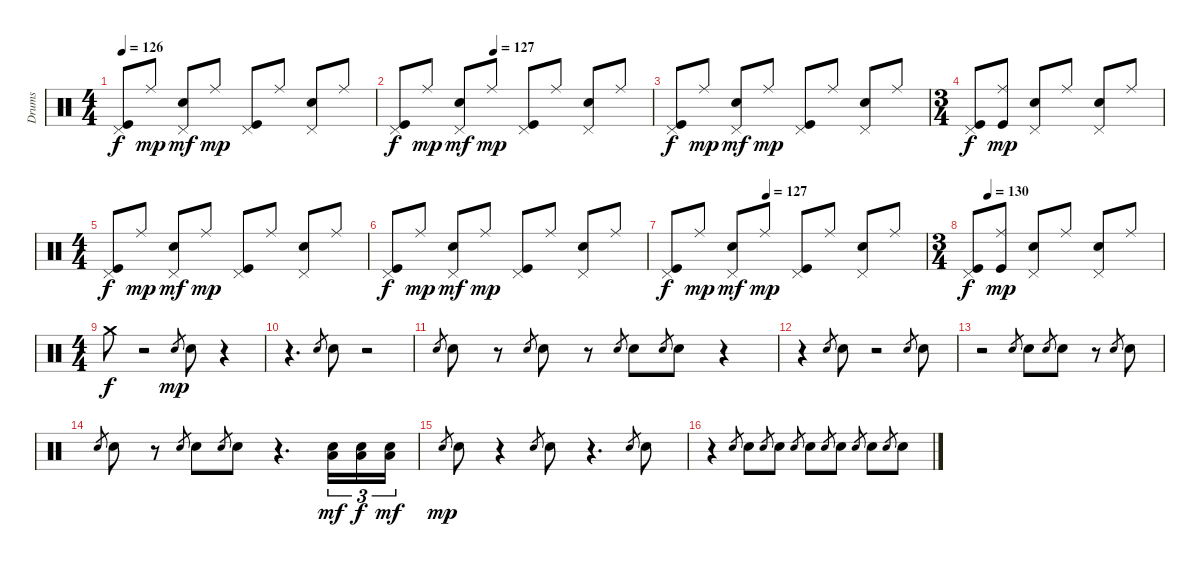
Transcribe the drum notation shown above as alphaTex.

\track ("Drums" "Drums") {instrument percussion}
\staff {score}
\articulation defaults
\ts (4 4)
\tempo 126
\clef neutral
\ks c
("Kick (hit)" "Pedal Hi-Hat (hit)").8{dy f} "Ride (middle)".8{dy mp} ("Electric Snare (hit)" "Pedal Hi-Hat (hit)").8{dy mf} "Ride (middle)".8{dy mp} ("Kick (hit)" "Pedal Hi-Hat (hit)").8 "Ride (middle)".8 ("Electric Snare (hit)" "Pedal Hi-Hat (hit)").8 "Ride (middle)".8 |
\tempo (127 0.375)
("Kick (hit)" "Pedal Hi-Hat (hit)").8{dy f} "Ride (middle)".8{dy mp} ("Electric Snare (hit)" "Pedal Hi-Hat (hit)").8{dy mf} "Ride (middle)".8{dy mp} ("Kick (hit)" "Pedal Hi-Hat (hit)").8 "Ride (middle)".8 ("Electric Snare (hit)" "Pedal Hi-Hat (hit)").8 "Ride (middle)".8 |
("Kick (hit)" "Pedal Hi-Hat (hit)").8{dy f} "Ride (middle)".8{dy mp} ("Electric Snare (hit)" "Pedal Hi-Hat (hit)").8{dy mf} "Ride (middle)".8{dy mp} ("Kick (hit)" "Pedal Hi-Hat (hit)").8 "Ride (middle)".8 ("Electric Snare (hit)" "Pedal Hi-Hat (hit)").8 "Ride (middle)".8 |
\ts (3 4)
("Kick (hit)" "Pedal Hi-Hat (hit)").8{dy f} ("Kick (hit)" "Ride (middle)").8{dy mp} ("Electric Snare (hit)" "Pedal Hi-Hat (hit)").8 "Ride (middle)".8 ("Electric Snare (hit)" "Pedal Hi-Hat (hit)").8 "Ride (middle)".8 |
\ts (4 4)
("Kick (hit)" "Pedal Hi-Hat (hit)").8{dy f} "Ride (middle)".8{dy mp} ("Electric Snare (hit)" "Pedal Hi-Hat (hit)").8{dy mf} "Ride (middle)".8{dy mp} ("Kick (hit)" "Pedal Hi-Hat (hit)").8 "Ride (middle)".8 ("Electric Snare (hit)" "Pedal Hi-Hat (hit)").8 "Ride (middle)".8 |
("Kick (hit)" "Pedal Hi-Hat (hit)").8{dy f} "Ride (middle)".8{dy mp} ("Electric Snare (hit)" "Pedal Hi-Hat (hit)").8{dy mf} "Ride (middle)".8{dy mp} ("Kick (hit)" "Pedal Hi-Hat (hit)").8 "Ride (middle)".8 ("Electric Snare (hit)" "Pedal Hi-Hat (hit)").8 "Ride (middle)".8 |
\tempo (127 0.375)
("Kick (hit)" "Pedal Hi-Hat (hit)").8{dy f} "Ride (middle)".8{dy mp} ("Electric Snare (hit)" "Pedal Hi-Hat (hit)").8{dy mf} "Ride (middle)".8{dy mp} ("Kick (hit)" "Pedal Hi-Hat (hit)").8 "Ride (middle)".8 ("Electric Snare (hit)" "Pedal Hi-Hat (hit)").8 "Ride (middle)".8 |
\ts (3 4)
\tempo (130 0.08333333333333333)
("Kick (hit)" "Pedal Hi-Hat (hit)").8{dy f} ("Kick (hit)" "Ride (middle)").8{dy mp} ("Electric Snare (hit)" "Pedal Hi-Hat (hit)").8 "Ride (middle)".8 ("Electric Snare (hit)" "Pedal Hi-Hat (hit)").8 "Ride (middle)".8 |
\ts (4 4)
"Crash medium (hit)".8{dy f} r.2 "Electric Snare (hit)".8{gr dy mp} "Electric Snare (hit)".8 r.4 |
r.4{d} "Electric Snare (hit)".8{gr} "Electric Snare (hit)".8 r.2 |
"Electric Snare (hit)".8{gr} "Electric Snare (hit)".8 r.8 "Electric Snare (hit)".8{gr} "Electric Snare (hit)".8 r.8 "Electric Snare (hit)".8{gr} "Electric Snare (hit)".8 "Electric Snare (hit)".8{gr} "Electric Snare (hit)".8 r.4 |
r.4 "Electric Snare (hit)".8{gr} "Electric Snare (hit)".8 r.2 "Electric Snare (hit)".8{gr} "Electric Snare (hit)".8 |
r.2 "Electric Snare (hit)".8{gr} "Electric Snare (hit)".8 "Electric Snare (hit)".8{gr} "Electric Snare (hit)".8 r.8 "Electric Snare (hit)".8{gr} "Electric Snare (hit)".8 |
"Electric Snare (hit)".8{gr} "Electric Snare (hit)".8 r.8 "Electric Snare (hit)".8{gr} "Electric Snare (hit)".8 "Electric Snare (hit)".8{gr} "Electric Snare (hit)".8 r.4{d} ("Electric Snare (hit)" "Low Floor Tom (hit)").16{tu (3 2) dy mf} ("Electric Snare (hit)" "Low Floor Tom (hit)").16{tu (3 2) dy f} ("Electric Snare (hit)" "Low Floor Tom (hit)").16{tu (3 2) dy mf} |
"Electric Snare (hit)".8{gr dy mp} "Electric Snare (hit)".8 r.4 "Electric Snare (hit)".8{gr} "Electric Snare (hit)".8 r.4{d} "Electric Snare (hit)".8{gr} "Electric Snare (hit)".8 |
r.4 "Electric Snare (hit)".8{gr} "Electric Snare (hit)".8 "Electric Snare (hit)".8{gr} "Electric Snare (hit)".8 "Electric Snare (hit)".8{gr} "Electric Snare (hit)".8 "Electric Snare (hit)".8{gr} "Electric Snare (hit)".8 "Electric Snare (hit)".8{gr} "Electric Snare (hit)".8 "Electric Snare (hit)".8{gr} "Electric Snare (hit)".8
